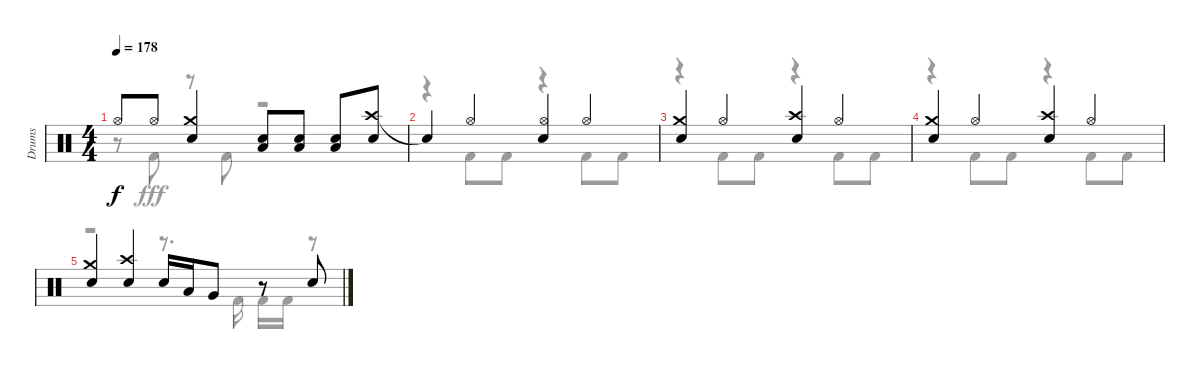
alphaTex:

\track ("Drums" "Drums") {instrument percussion}
\staff {score}
\articulation defaults
\voice
\ts (4 4)
\tempo 178
\clef neutral
\ks c "Hi-Hat (open)".8{dy f} "Hi-Hat (open)".8
("Crash medium (hit)" "Snare (hit) 2").4 ("Snare (hit) 2" "Low Tom (hit)").8 ("Snare (hit) 2" "Low Tom (hit)").8 ("Snare (hit) 2" "Low Tom (hit)").8 ("Crash high (hit)" "Snare (hit) 2").8 |
"Snare (hit)"{t}.4 "Hi-Hat (open)".4 ("Hi-Hat (open)" "Snare (hit) 2").4 "Hi-Hat (open)".4 |
("Crash medium (hit)" "Snare (hit) 2").4 "Hi-Hat (open)".4 ("Crash high (hit)" "Snare (hit) 2").4 "Hi-Hat (open)".4 |
("Crash medium (hit)" "Snare (hit) 2").4 "Hi-Hat (open)".4 ("Crash high (hit)" "Snare (hit) 2").4 "Hi-Hat (open)".4 |
("Crash medium (hit)" "Snare (hit) 2").4 ("Crash high (hit)" "Snare (hit) 2").4 "Snare (hit) 2".16 "Low Tom (hit)".16 "Very Low Tom (hit)".8 r.8 "Snare (hit) 2".8
\voice
\clef neutral
\ottava regular
\simile none
\ks c
r.8{dy fff} "Kick (hit) 2".8 r.8 "Kick (hit) 2".8 r.2 |
r.4 "Kick (hit) 2".8 "Kick (hit) 2".8 r.4 "Kick (hit) 2".8 "Kick (hit) 2".8 |
r.4 "Kick (hit) 2".8 "Kick (hit) 2".8 r.4 "Kick (hit) 2".8 "Kick (hit) 2".8 |
r.4 "Kick (hit) 2".8 "Kick (hit) 2".8 r.4 "Kick (hit) 2".8 "Kick (hit) 2".8 |
r.2 r.8{d} "Kick (hit) 2".16 "Kick (hit) 2".16 "Kick (hit) 2".16 r.8
